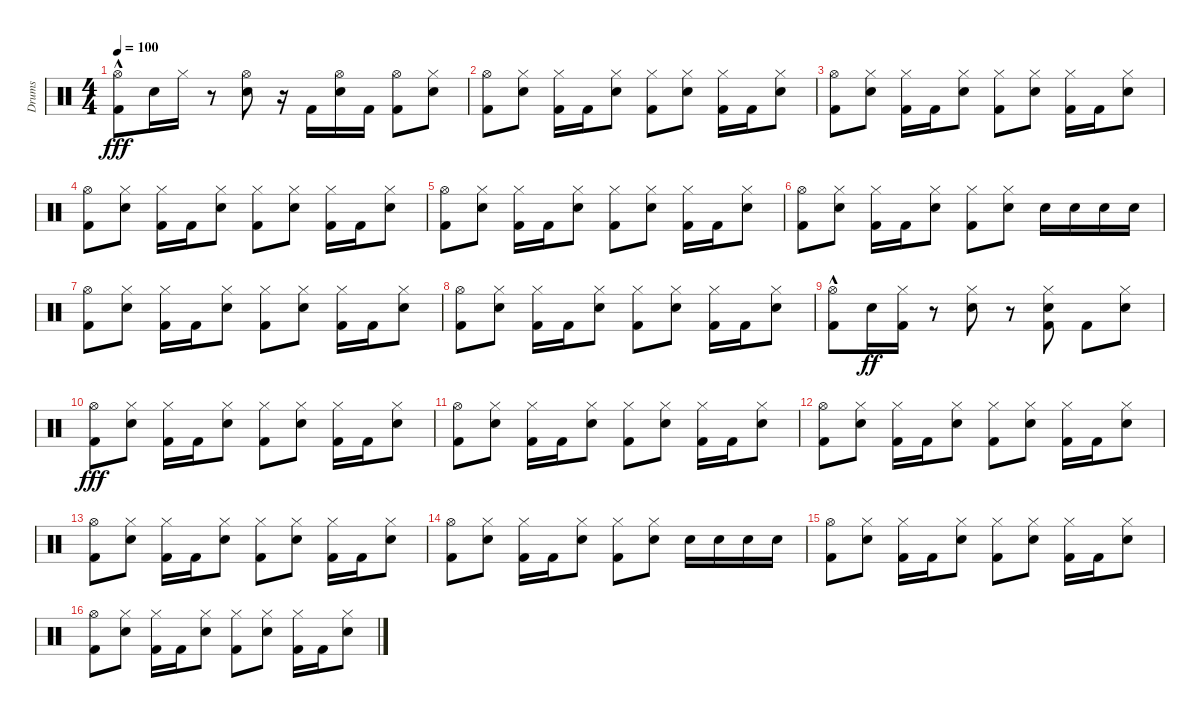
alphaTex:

\track ("Drums" "Drums") {instrument percussion}
\staff {score}
\articulation defaults
\ts (4 4)
\tempo 100
\clef neutral
\ks c
("Hi-Hat (open)" "Kick (hit) 2"{hac}).8{dy fff} "Electric Snare (hit)".16 "Hi-Hat (closed)".16 r.8 ("Hi-Hat (open)" "Electric Snare (hit)").8 r.16 "Kick (hit) 2".16 ("Hi-Hat (open)" "Electric Snare (hit)").16 "Kick (hit) 2".16 ("Kick (hit) 2" "Hi-Hat (open)").8 ("Hi-Hat (closed)" "Electric Snare (hit)").8 |
("Kick (hit) 2" "Hi-Hat (open)").8 ("Hi-Hat (closed)" "Electric Snare (hit)").8 ("Hi-Hat (closed)" "Kick (hit) 2").16 "Kick (hit) 2".16 ("Hi-Hat (closed)" "Electric Snare (hit)").8 ("Kick (hit) 2" "Hi-Hat (closed)").8 ("Hi-Hat (closed)" "Electric Snare (hit)").8 ("Kick (hit) 2" "Hi-Hat (closed)").16 "Kick (hit) 2".16 ("Hi-Hat (closed)" "Electric Snare (hit)").8 |
("Kick (hit) 2" "Hi-Hat (open)").8 ("Hi-Hat (closed)" "Electric Snare (hit)").8 ("Hi-Hat (closed)" "Kick (hit) 2").16 "Kick (hit) 2".16 ("Hi-Hat (closed)" "Electric Snare (hit)").8 ("Kick (hit) 2" "Hi-Hat (closed)").8 ("Hi-Hat (closed)" "Electric Snare (hit)").8 ("Kick (hit) 2" "Hi-Hat (closed)").16 "Kick (hit) 2".16 ("Hi-Hat (closed)" "Electric Snare (hit)").8 |
("Kick (hit) 2" "Hi-Hat (open)").8 ("Hi-Hat (closed)" "Electric Snare (hit)").8 ("Hi-Hat (closed)" "Kick (hit) 2").16 "Kick (hit) 2".16 ("Hi-Hat (closed)" "Electric Snare (hit)").8 ("Kick (hit) 2" "Hi-Hat (closed)").8 ("Hi-Hat (closed)" "Electric Snare (hit)").8 ("Kick (hit) 2" "Hi-Hat (closed)").16 "Kick (hit) 2".16 ("Hi-Hat (closed)" "Electric Snare (hit)").8 |
("Kick (hit) 2" "Hi-Hat (open)").8 ("Hi-Hat (closed)" "Electric Snare (hit)").8 ("Hi-Hat (closed)" "Kick (hit) 2").16 "Kick (hit) 2".16 ("Hi-Hat (closed)" "Electric Snare (hit)").8 ("Kick (hit) 2" "Hi-Hat (closed)").8 ("Hi-Hat (closed)" "Electric Snare (hit)").8 ("Kick (hit) 2" "Hi-Hat (closed)").16 "Kick (hit) 2".16 ("Hi-Hat (closed)" "Electric Snare (hit)").8 |
("Kick (hit) 2" "Hi-Hat (open)").8 ("Hi-Hat (closed)" "Electric Snare (hit)").8 ("Hi-Hat (closed)" "Kick (hit) 2").16 "Kick (hit) 2".16 ("Hi-Hat (closed)" "Electric Snare (hit)").8 ("Kick (hit) 2" "Hi-Hat (closed)").8 ("Hi-Hat (closed)" "Electric Snare (hit)").8 "Electric Snare (hit)".16 "Electric Snare (hit)".16 "Electric Snare (hit)".16 "Electric Snare (hit)".16 |
("Kick (hit) 2" "Hi-Hat (open)").8 ("Hi-Hat (closed)" "Electric Snare (hit)").8 ("Hi-Hat (closed)" "Kick (hit) 2").16 "Kick (hit) 2".16 ("Hi-Hat (closed)" "Electric Snare (hit)").8 ("Kick (hit) 2" "Hi-Hat (closed)").8 ("Hi-Hat (closed)" "Electric Snare (hit)").8 ("Kick (hit) 2" "Hi-Hat (closed)").16 "Kick (hit) 2".16 ("Hi-Hat (closed)" "Electric Snare (hit)").8 |
("Kick (hit) 2" "Hi-Hat (open)").8 ("Hi-Hat (closed)" "Electric Snare (hit)").8 ("Hi-Hat (closed)" "Kick (hit) 2").16 "Kick (hit) 2".16 ("Hi-Hat (closed)" "Electric Snare (hit)").8 ("Kick (hit) 2" "Hi-Hat (closed)").8 ("Hi-Hat (closed)" "Electric Snare (hit)").8 ("Kick (hit) 2" "Hi-Hat (closed)").16 "Kick (hit) 2".16 ("Hi-Hat (closed)" "Electric Snare (hit)").8 |
("Kick (hit) 2"{hac} "Hi-Hat (open)").8 "Electric Snare (hit)".16{dy ff} ("Hi-Hat (closed)" "Kick (hit) 2").16 r.8 ("Hi-Hat (closed)" "Electric Snare (hit)").8 r.8 ("Hi-Hat (closed)" "Electric Snare (hit)" "Kick (hit) 2").8 "Kick (hit) 2".8 ("Hi-Hat (closed)" "Electric Snare (hit)").8 |
("Kick (hit) 2" "Hi-Hat (open)").8{dy fff} ("Hi-Hat (closed)" "Electric Snare (hit)").8 ("Hi-Hat (closed)" "Kick (hit) 2").16 "Kick (hit) 2".16 ("Hi-Hat (closed)" "Electric Snare (hit)").8 ("Kick (hit) 2" "Hi-Hat (closed)").8 ("Hi-Hat (closed)" "Electric Snare (hit)").8 ("Kick (hit) 2" "Hi-Hat (closed)").16 "Kick (hit) 2".16 ("Hi-Hat (closed)" "Electric Snare (hit)").8 |
("Kick (hit) 2" "Hi-Hat (open)").8 ("Hi-Hat (closed)" "Electric Snare (hit)").8 ("Hi-Hat (closed)" "Kick (hit) 2").16 "Kick (hit) 2".16 ("Hi-Hat (closed)" "Electric Snare (hit)").8 ("Kick (hit) 2" "Hi-Hat (closed)").8 ("Hi-Hat (closed)" "Electric Snare (hit)").8 ("Kick (hit) 2" "Hi-Hat (closed)").16 "Kick (hit) 2".16 ("Hi-Hat (closed)" "Electric Snare (hit)").8 |
("Kick (hit) 2" "Hi-Hat (open)").8 ("Hi-Hat (closed)" "Electric Snare (hit)").8 ("Hi-Hat (closed)" "Kick (hit) 2").16 "Kick (hit) 2".16 ("Hi-Hat (closed)" "Electric Snare (hit)").8 ("Kick (hit) 2" "Hi-Hat (closed)").8 ("Hi-Hat (closed)" "Electric Snare (hit)").8 ("Kick (hit) 2" "Hi-Hat (closed)").16 "Kick (hit) 2".16 ("Hi-Hat (closed)" "Electric Snare (hit)").8 |
("Kick (hit) 2" "Hi-Hat (open)").8 ("Hi-Hat (closed)" "Electric Snare (hit)").8 ("Hi-Hat (closed)" "Kick (hit) 2").16 "Kick (hit) 2".16 ("Hi-Hat (closed)" "Electric Snare (hit)").8 ("Kick (hit) 2" "Hi-Hat (closed)").8 ("Hi-Hat (closed)" "Electric Snare (hit)").8 ("Kick (hit) 2" "Hi-Hat (closed)").16 "Kick (hit) 2".16 ("Hi-Hat (closed)" "Electric Snare (hit)").8 |
("Kick (hit) 2" "Hi-Hat (open)").8 ("Hi-Hat (closed)" "Electric Snare (hit)").8 ("Hi-Hat (closed)" "Kick (hit) 2").16 "Kick (hit) 2".16 ("Hi-Hat (closed)" "Electric Snare (hit)").8 ("Kick (hit) 2" "Hi-Hat (closed)").8 ("Hi-Hat (closed)" "Electric Snare (hit)").8 "Electric Snare (hit)".16 "Electric Snare (hit)".16 "Electric Snare (hit)".16 "Electric Snare (hit)".16 |
("Kick (hit) 2" "Hi-Hat (open)").8 ("Hi-Hat (closed)" "Electric Snare (hit)").8 ("Hi-Hat (closed)" "Kick (hit) 2").16 "Kick (hit) 2".16 ("Hi-Hat (closed)" "Electric Snare (hit)").8 ("Kick (hit) 2" "Hi-Hat (closed)").8 ("Hi-Hat (closed)" "Electric Snare (hit)").8 ("Kick (hit) 2" "Hi-Hat (closed)").16 "Kick (hit) 2".16 ("Hi-Hat (closed)" "Electric Snare (hit)").8 |
("Kick (hit) 2" "Hi-Hat (open)").8 ("Hi-Hat (closed)" "Electric Snare (hit)").8 ("Hi-Hat (closed)" "Kick (hit) 2").16 "Kick (hit) 2".16 ("Hi-Hat (closed)" "Electric Snare (hit)").8 ("Kick (hit) 2" "Hi-Hat (closed)").8 ("Hi-Hat (closed)" "Electric Snare (hit)").8 ("Kick (hit) 2" "Hi-Hat (closed)").16 "Kick (hit) 2".16 ("Hi-Hat (closed)" "Electric Snare (hit)").8
